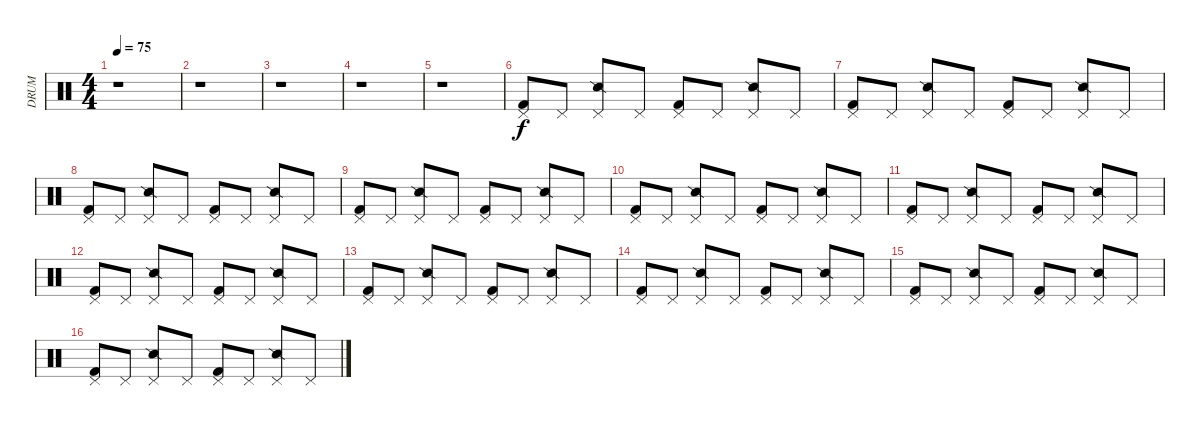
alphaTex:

\track ("DRUM" "DRUM") {instrument percussion}
\staff {score}
\articulation defaults
\ts (4 4)
\tempo 75
\clef neutral
\ks c
r.1{dy f} |
r.1 |
r.1 |
r.1 |
r.1 |
("Kick (hit) 2" "Pedal Hi-Hat (hit)").8 "Pedal Hi-Hat (hit)".8 ("Snare (side stick) 2" "Pedal Hi-Hat (hit)").8 "Pedal Hi-Hat (hit)".8 ("Kick (hit) 2" "Pedal Hi-Hat (hit)").8 "Pedal Hi-Hat (hit)".8 ("Snare (side stick) 2" "Pedal Hi-Hat (hit)").8 "Pedal Hi-Hat (hit)".8 |
("Kick (hit) 2" "Pedal Hi-Hat (hit)").8 "Pedal Hi-Hat (hit)".8 ("Snare (side stick) 2" "Pedal Hi-Hat (hit)").8 "Pedal Hi-Hat (hit)".8 ("Kick (hit) 2" "Pedal Hi-Hat (hit)").8 "Pedal Hi-Hat (hit)".8 ("Snare (side stick) 2" "Pedal Hi-Hat (hit)").8 "Pedal Hi-Hat (hit)".8 |
("Kick (hit) 2" "Pedal Hi-Hat (hit)").8 "Pedal Hi-Hat (hit)".8 ("Snare (side stick) 2" "Pedal Hi-Hat (hit)").8 "Pedal Hi-Hat (hit)".8 ("Kick (hit) 2" "Pedal Hi-Hat (hit)").8 "Pedal Hi-Hat (hit)".8 ("Snare (side stick) 2" "Pedal Hi-Hat (hit)").8 "Pedal Hi-Hat (hit)".8 |
("Kick (hit) 2" "Pedal Hi-Hat (hit)").8 "Pedal Hi-Hat (hit)".8 ("Snare (side stick) 2" "Pedal Hi-Hat (hit)").8 "Pedal Hi-Hat (hit)".8 ("Kick (hit) 2" "Pedal Hi-Hat (hit)").8 "Pedal Hi-Hat (hit)".8 ("Snare (side stick) 2" "Pedal Hi-Hat (hit)").8 "Pedal Hi-Hat (hit)".8 |
("Kick (hit) 2" "Pedal Hi-Hat (hit)").8 "Pedal Hi-Hat (hit)".8 ("Snare (side stick) 2" "Pedal Hi-Hat (hit)").8 "Pedal Hi-Hat (hit)".8 ("Kick (hit) 2" "Pedal Hi-Hat (hit)").8 "Pedal Hi-Hat (hit)".8 ("Snare (side stick) 2" "Pedal Hi-Hat (hit)").8 "Pedal Hi-Hat (hit)".8 |
("Kick (hit) 2" "Pedal Hi-Hat (hit)").8 "Pedal Hi-Hat (hit)".8 ("Snare (side stick) 2" "Pedal Hi-Hat (hit)").8 "Pedal Hi-Hat (hit)".8 ("Kick (hit) 2" "Pedal Hi-Hat (hit)").8 "Pedal Hi-Hat (hit)".8 ("Snare (side stick) 2" "Pedal Hi-Hat (hit)").8 "Pedal Hi-Hat (hit)".8 |
("Kick (hit) 2" "Pedal Hi-Hat (hit)").8 "Pedal Hi-Hat (hit)".8 ("Snare (side stick) 2" "Pedal Hi-Hat (hit)").8 "Pedal Hi-Hat (hit)".8 ("Kick (hit) 2" "Pedal Hi-Hat (hit)").8 "Pedal Hi-Hat (hit)".8 ("Snare (side stick) 2" "Pedal Hi-Hat (hit)").8 "Pedal Hi-Hat (hit)".8 |
("Kick (hit) 2" "Pedal Hi-Hat (hit)").8 "Pedal Hi-Hat (hit)".8 ("Snare (side stick) 2" "Pedal Hi-Hat (hit)").8 "Pedal Hi-Hat (hit)".8 ("Kick (hit) 2" "Pedal Hi-Hat (hit)").8 "Pedal Hi-Hat (hit)".8 ("Snare (side stick) 2" "Pedal Hi-Hat (hit)").8 "Pedal Hi-Hat (hit)".8 |
("Kick (hit) 2" "Pedal Hi-Hat (hit)").8 "Pedal Hi-Hat (hit)".8 ("Snare (side stick) 2" "Pedal Hi-Hat (hit)").8 "Pedal Hi-Hat (hit)".8 ("Kick (hit) 2" "Pedal Hi-Hat (hit)").8 "Pedal Hi-Hat (hit)".8 ("Snare (side stick) 2" "Pedal Hi-Hat (hit)").8 "Pedal Hi-Hat (hit)".8 |
("Kick (hit) 2" "Pedal Hi-Hat (hit)").8 "Pedal Hi-Hat (hit)".8 ("Snare (side stick) 2" "Pedal Hi-Hat (hit)").8 "Pedal Hi-Hat (hit)".8 ("Kick (hit) 2" "Pedal Hi-Hat (hit)").8 "Pedal Hi-Hat (hit)".8 ("Snare (side stick) 2" "Pedal Hi-Hat (hit)").8 "Pedal Hi-Hat (hit)".8 |
("Kick (hit) 2" "Pedal Hi-Hat (hit)").8 "Pedal Hi-Hat (hit)".8 ("Snare (side stick) 2" "Pedal Hi-Hat (hit)").8 "Pedal Hi-Hat (hit)".8 ("Kick (hit) 2" "Pedal Hi-Hat (hit)").8 "Pedal Hi-Hat (hit)".8 ("Snare (side stick) 2" "Pedal Hi-Hat (hit)").8 "Pedal Hi-Hat (hit)".8
